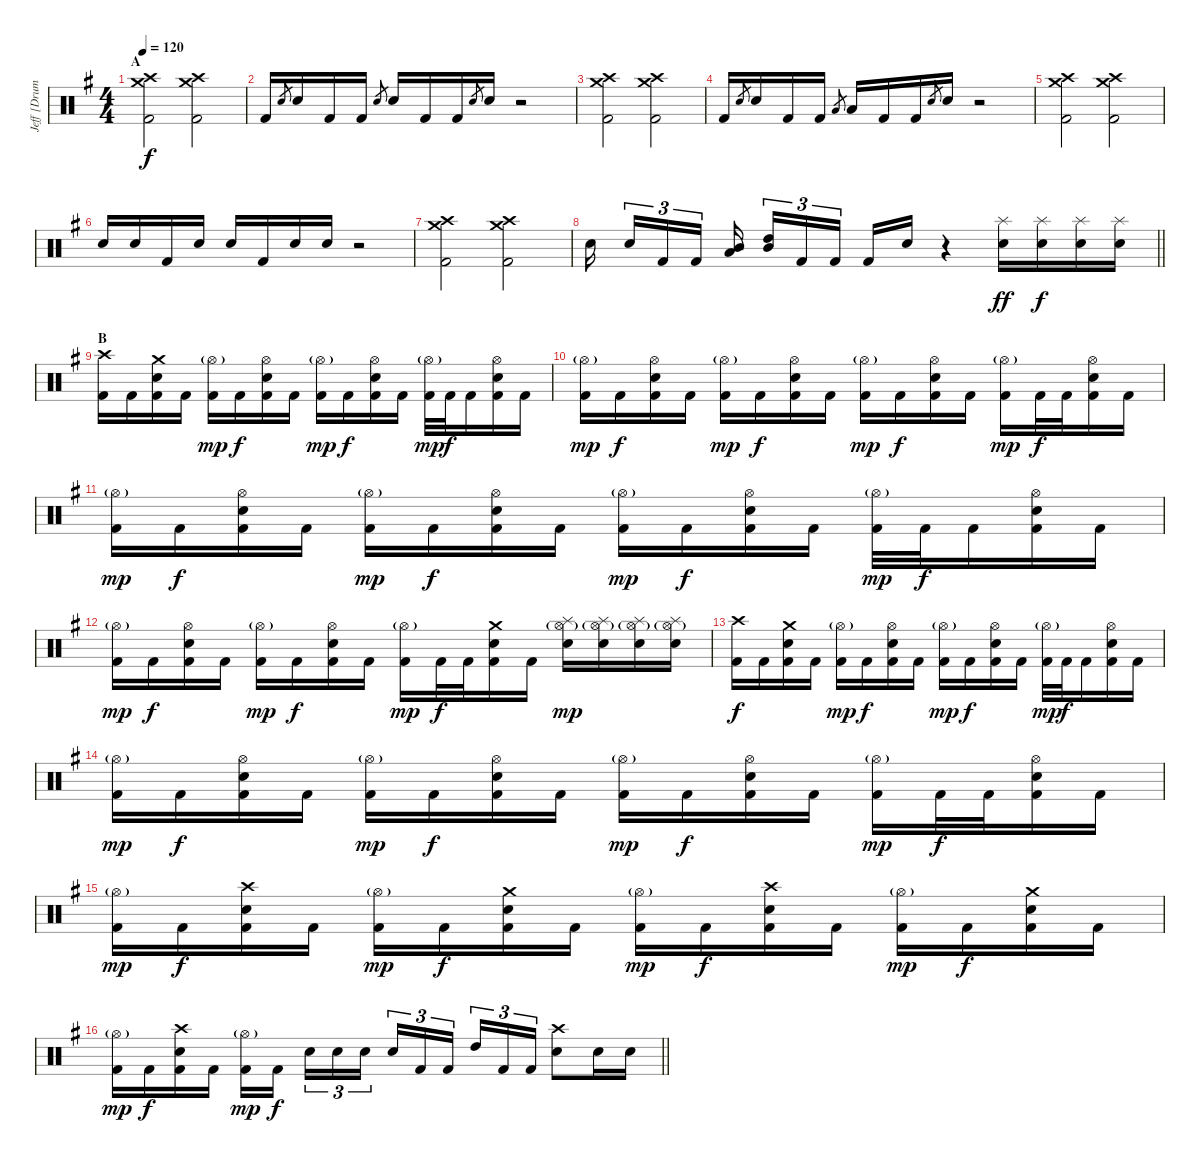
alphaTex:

\track ("Jeff [Drums]" "Jeff [Drum") {instrument percussion}
\staff {score}
\articulation defaults
\ts (4 4)
\section ("" "A")
\tempo 120
\clef neutral
\ks g
("Crash high (hit)" "Crash medium (hit)" "Kick (hit) 2").2{dy f} ("Crash high (hit)" "Crash medium (hit)" "Kick (hit) 2").2 |
"Kick (hit) 2".16 "Electric Snare (hit)".8{gr} "Electric Snare (hit)".16 "Kick (hit) 2".16 "Kick (hit) 2".16 "Electric Snare (hit)".8{gr} "Electric Snare (hit)".16 "Kick (hit) 2".16 "Kick (hit) 2".16 "Electric Snare (hit)".8{gr} "Electric Snare (hit)".16 r.2 |
("Crash high (hit)" "Crash medium (hit)" "Kick (hit) 2").2 ("Crash high (hit)" "Crash medium (hit)" "Kick (hit) 2").2 |
"Kick (hit) 2".16 "Electric Snare (hit)".8{gr} "Electric Snare (hit)".16 "Kick (hit) 2".16 "Kick (hit) 2".16 "Low Tom (hit)".8{gr} "Low Tom (hit)".16 "Kick (hit) 2".16 "Kick (hit) 2".16 "Electric Snare (hit)".8{gr} "Electric Snare (hit)".16 r.2 |
("Crash high (hit)" "Crash medium (hit)" "Kick (hit) 2").2 ("Crash high (hit)" "Crash medium (hit)" "Kick (hit) 2").2 |
"Electric Snare (hit)".16 "Electric Snare (hit)".16 "Kick (hit) 2".16 "Electric Snare (hit)".16 "Electric Snare (hit)".16 "Kick (hit) 2".16 "Electric Snare (hit)".16 "Electric Snare (hit)".16 r.2 |
("Crash high (hit)" "Crash medium (hit)" "Kick (hit) 2").2 ("Crash high (hit)" "Crash medium (hit)" "Kick (hit) 2").2 |
\barLineRight lightlight "Electric Snare (hit)".16{beam splitsecondary} "Electric Snare (hit)".16{tu (3 2)} "Kick (hit) 2".16{tu (3 2)} "Kick (hit) 2".16{tu (3 2) beam splitsecondary}
("Mid Tom (hit)" "Low Tom (hit)").16 ("High Tom (hit)" "Mid Tom (hit)").16{tu (3 2)} "Kick (hit) 2".16{tu (3 2)} "Kick (hit) 2".16{tu (3 2) beam splitsecondary} "Kick (hit) 2".16 "Electric Snare (hit)".16 r.4 ("Splash (hit)" "Electric Snare (hit)").16{dy ff} ("Splash (hit)" "Electric Snare (hit)").16{dy f} ("Splash (hit)" "Electric Snare (hit)").16 ("Splash (hit)" "Electric Snare (hit)").16 |
\section ("" "B")
("Crash high (hit)" "Kick (hit) 2").16 "Kick (hit) 2".16 ("Crash medium (hit)" "Electric Snare (hit)" "Kick (hit) 2").16 "Kick (hit) 2".16 ("Hi-Hat (open)"{g} "Kick (hit) 2").16{dy mp} "Kick (hit) 2".16{dy f} ("Hi-Hat (open)" "Electric Snare (hit)" "Kick (hit) 2").16 "Kick (hit) 2".16 ("Hi-Hat (open)"{g} "Kick (hit) 2").16{dy mp} "Kick (hit) 2".16{dy f} ("Hi-Hat (open)" "Electric Snare (hit)" "Kick (hit) 2").16 "Kick (hit) 2".16 ("Hi-Hat (open)"{g} "Kick (hit) 2").32{dy mp} "Kick (hit) 2".32{dy f} "Kick (hit) 2".16 ("Hi-Hat (open)" "Electric Snare (hit)" "Kick (hit) 2").16 "Kick (hit) 2".16 |
("Hi-Hat (open)"{g} "Kick (hit) 2").16{dy mp} "Kick (hit) 2".16{dy f} ("Hi-Hat (open)" "Electric Snare (hit)" "Kick (hit) 2").16 "Kick (hit) 2".16 ("Hi-Hat (open)"{g} "Kick (hit) 2").16{dy mp} "Kick (hit) 2".16{dy f} ("Hi-Hat (open)" "Electric Snare (hit)" "Kick (hit) 2").16 "Kick (hit) 2".16 ("Hi-Hat (open)"{g} "Kick (hit) 2").16{dy mp} "Kick (hit) 2".16{dy f} ("Hi-Hat (open)" "Electric Snare (hit)" "Kick (hit) 2").16 "Kick (hit) 2".16 ("Hi-Hat (open)"{g} "Kick (hit) 2").16{dy mp} "Kick (hit) 2".32{dy f} "Kick (hit) 2".32 ("Hi-Hat (open)" "Electric Snare (hit)" "Kick (hit) 2").16 "Kick (hit) 2".16 |
("Hi-Hat (open)"{g} "Kick (hit) 2").16{dy mp} "Kick (hit) 2".16{dy f} ("Hi-Hat (open)" "Electric Snare (hit)" "Kick (hit) 2").16 "Kick (hit) 2".16 ("Hi-Hat (open)"{g} "Kick (hit) 2").16{dy mp} "Kick (hit) 2".16{dy f} ("Hi-Hat (open)" "Electric Snare (hit)" "Kick (hit) 2").16 "Kick (hit) 2".16 ("Hi-Hat (open)"{g} "Kick (hit) 2").16{dy mp} "Kick (hit) 2".16{dy f} ("Hi-Hat (open)" "Electric Snare (hit)" "Kick (hit) 2").16 "Kick (hit) 2".16 ("Hi-Hat (open)"{g} "Kick (hit) 2").32{dy mp} "Kick (hit) 2".32{dy f} "Kick (hit) 2".16 ("Hi-Hat (open)" "Electric Snare (hit)" "Kick (hit) 2").16 "Kick (hit) 2".16 |
("Hi-Hat (open)"{g} "Kick (hit) 2").16{dy mp} "Kick (hit) 2".16{dy f} ("Hi-Hat (open)" "Electric Snare (hit)" "Kick (hit) 2").16 "Kick (hit) 2".16 ("Hi-Hat (open)"{g} "Kick (hit) 2").16{dy mp} "Kick (hit) 2".16{dy f} ("Hi-Hat (open)" "Electric Snare (hit)" "Kick (hit) 2").16 "Kick (hit) 2".16 ("Hi-Hat (open)"{g} "Kick (hit) 2").16{dy mp} "Kick (hit) 2".32{dy f} "Kick (hit) 2".32 ("Crash medium (hit)" "Electric Snare (hit)" "Kick (hit) 2").16 "Kick (hit) 2".16 ("Splash (hit)" "Hi-Hat (open)"{g} "Electric Snare (hit)").16{dy mp} ("Splash (hit)" "Hi-Hat (open)"{g} "Electric Snare (hit)").16 ("Splash (hit)" "Hi-Hat (open)"{g} "Electric Snare (hit)").16 ("Splash (hit)" "Hi-Hat (open)"{g} "Electric Snare (hit)").16 |
("Crash high (hit)" "Kick (hit) 2").16{dy f} "Kick (hit) 2".16 ("Crash medium (hit)" "Electric Snare (hit)" "Kick (hit) 2").16 "Kick (hit) 2".16 ("Hi-Hat (open)"{g} "Kick (hit) 2").16{dy mp} "Kick (hit) 2".16{dy f} ("Hi-Hat (open)" "Electric Snare (hit)" "Kick (hit) 2").16 "Kick (hit) 2".16 ("Hi-Hat (open)"{g} "Kick (hit) 2").16{dy mp} "Kick (hit) 2".16{dy f} ("Hi-Hat (open)" "Electric Snare (hit)" "Kick (hit) 2").16 "Kick (hit) 2".16 ("Hi-Hat (open)"{g} "Kick (hit) 2").32{dy mp} "Kick (hit) 2".32{dy f} "Kick (hit) 2".16 ("Hi-Hat (open)" "Electric Snare (hit)" "Kick (hit) 2").16 "Kick (hit) 2".16 |
("Hi-Hat (open)"{g} "Kick (hit) 2").16{dy mp} "Kick (hit) 2".16{dy f} ("Hi-Hat (open)" "Electric Snare (hit)" "Kick (hit) 2").16 "Kick (hit) 2".16 ("Hi-Hat (open)"{g} "Kick (hit) 2").16{dy mp} "Kick (hit) 2".16{dy f} ("Hi-Hat (open)" "Electric Snare (hit)" "Kick (hit) 2").16 "Kick (hit) 2".16 ("Hi-Hat (open)"{g} "Kick (hit) 2").16{dy mp} "Kick (hit) 2".16{dy f} ("Hi-Hat (open)" "Electric Snare (hit)" "Kick (hit) 2").16 "Kick (hit) 2".16 ("Hi-Hat (open)"{g} "Kick (hit) 2").16{dy mp} "Kick (hit) 2".32{dy f} "Kick (hit) 2".32 ("Hi-Hat (open)" "Electric Snare (hit)" "Kick (hit) 2").16 "Kick (hit) 2".16 |
("Hi-Hat (open)"{g} "Kick (hit) 2").16{dy mp} "Kick (hit) 2".16{dy f} ("Crash high (hit)" "Electric Snare (hit)" "Kick (hit) 2").16 "Kick (hit) 2".16 ("Hi-Hat (open)"{g} "Kick (hit) 2").16{dy mp} "Kick (hit) 2".16{dy f} ("Crash medium (hit)" "Electric Snare (hit)" "Kick (hit) 2").16 "Kick (hit) 2".16 ("Hi-Hat (open)"{g} "Kick (hit) 2").16{dy mp} "Kick (hit) 2".16{dy f} ("Crash high (hit)" "Electric Snare (hit)" "Kick (hit) 2").16 "Kick (hit) 2".16 ("Hi-Hat (open)"{g} "Kick (hit) 2").16{dy mp} "Kick (hit) 2".16{dy f} ("Crash medium (hit)" "Electric Snare (hit)" "Kick (hit) 2").16 "Kick (hit) 2".16 |
\barLineRight lightlight
("Hi-Hat (open)"{g} "Kick (hit) 2").16{dy mp} "Kick (hit) 2".16{dy f} ("Crash high (hit)" "Electric Snare (hit)" "Kick (hit) 2").16 "Kick (hit) 2".16 ("Hi-Hat (open)"{g} "Kick (hit) 2").16{dy mp} "Kick (hit) 2".16{dy f beam splitsecondary} "Electric Snare (hit)".16{tu (3 2)} "Electric Snare (hit)".16{tu (3 2)} "Electric Snare (hit)".16{tu (3 2)} "Electric Snare (hit)".16{tu (3 2)} "Kick (hit) 2".16{tu (3 2)} "Kick (hit) 2".16{tu (3 2) beam splitsecondary} "High Tom (hit)".16{tu (3 2)} "Kick (hit) 2".16{tu (3 2)} "Kick (hit) 2".16{tu (3 2)} ("Crash high (hit)" "Electric Snare (hit)").8 "Electric Snare (hit)".16 "Electric Snare (hit)".16
